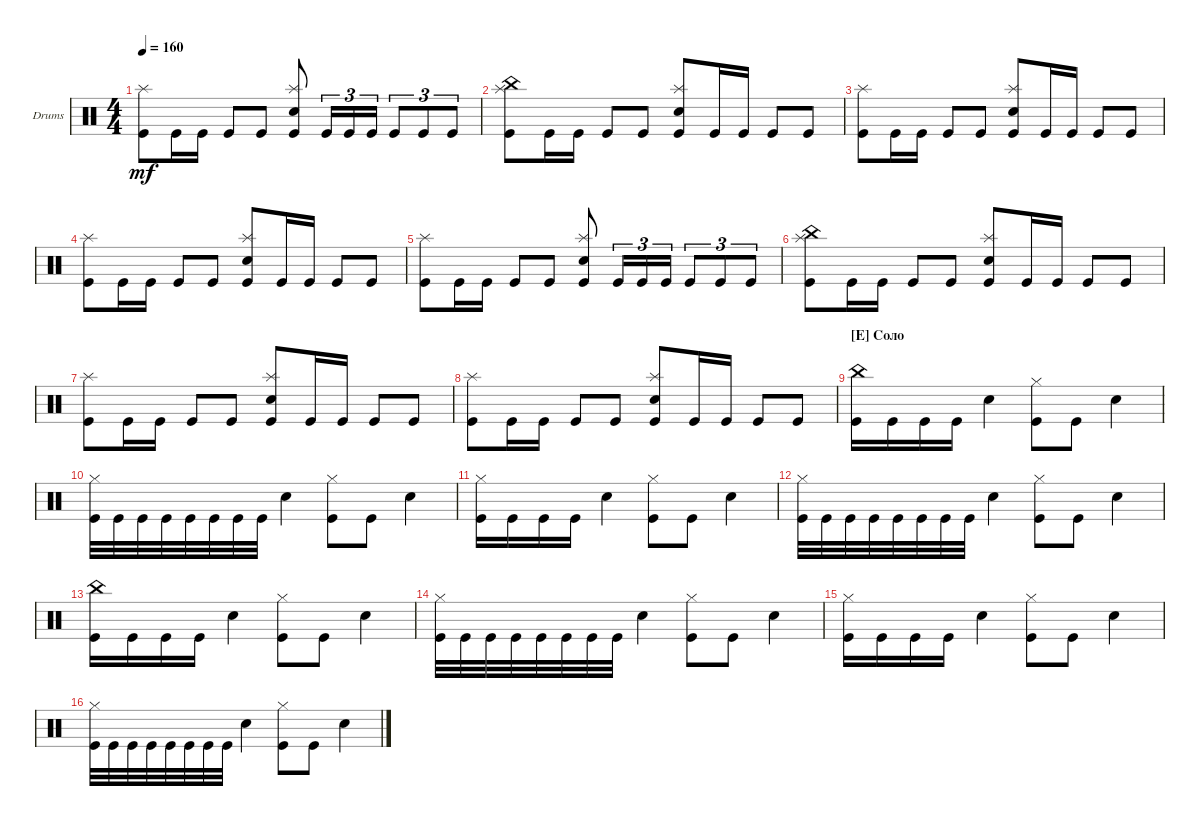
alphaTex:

\defaultSystemsLayout 4
\bracketExtendMode groupsimilarinstruments
\firstSystemTrackNameOrientation horizontal
\otherSystemsTrackNameOrientation horizontal
\track ("Drumkit" "Drums") {instrument percussion}
\staff {score}
\articulation defaults
\ts (4 4)
\tempo 160
\clef neutral
\ks c
("Kick (hit)" "Splash (hit)").8{dy mf} "Kick (hit)".16 "Kick (hit)".16 "Kick (hit)".8 "Kick (hit)".8 ("Kick (hit)" "Snare (hit) 2" "Splash (hit)").8 "Kick (hit)".16{tu (3 2)} "Kick (hit)".16{tu (3 2)} "Kick (hit)".16{tu (3 2)} "Kick (hit)".8{tu (3 2)} "Kick (hit)".8{tu (3 2)} "Kick (hit)".8{tu (3 2)} |
("Kick (hit)" "China (hit)" "Splash (hit)").8 "Kick (hit)".16 "Kick (hit)".16 "Kick (hit)".8 "Kick (hit)".8 ("Kick (hit)" "Snare (hit) 2" "Splash (hit)").8 "Kick (hit)".16 "Kick (hit)".16 "Kick (hit)".8 "Kick (hit)".8 |
("Kick (hit)" "Splash (hit)").8 "Kick (hit)".16 "Kick (hit)".16 "Kick (hit)".8 "Kick (hit)".8 ("Kick (hit)" "Snare (hit) 2" "Splash (hit)").8 "Kick (hit)".16 "Kick (hit)".16 "Kick (hit)".8 "Kick (hit)".8 |
("Kick (hit)" "Splash (hit)").8 "Kick (hit)".16 "Kick (hit)".16 "Kick (hit)".8 "Kick (hit)".8 ("Kick (hit)" "Snare (hit) 2" "Splash (hit)").8 "Kick (hit)".16 "Kick (hit)".16 "Kick (hit)".8 "Kick (hit)".8 |
("Kick (hit)" "Splash (hit)").8 "Kick (hit)".16 "Kick (hit)".16 "Kick (hit)".8 "Kick (hit)".8 ("Kick (hit)" "Snare (hit) 2" "Splash (hit)").8 "Kick (hit)".16{tu (3 2)} "Kick (hit)".16{tu (3 2)} "Kick (hit)".16{tu (3 2)} "Kick (hit)".8{tu (3 2)} "Kick (hit)".8{tu (3 2)} "Kick (hit)".8{tu (3 2)} |
("Kick (hit)" "China (hit)" "Splash (hit)").8 "Kick (hit)".16 "Kick (hit)".16 "Kick (hit)".8 "Kick (hit)".8 ("Kick (hit)" "Snare (hit) 2" "Splash (hit)").8 "Kick (hit)".16 "Kick (hit)".16 "Kick (hit)".8 "Kick (hit)".8 |
("Kick (hit)" "Splash (hit)").8 "Kick (hit)".16 "Kick (hit)".16 "Kick (hit)".8 "Kick (hit)".8 ("Kick (hit)" "Snare (hit) 2" "Splash (hit)").8 "Kick (hit)".16 "Kick (hit)".16 "Kick (hit)".8 "Kick (hit)".8 |
("Kick (hit)" "Splash (hit)").8 "Kick (hit)".16 "Kick (hit)".16 "Kick (hit)".8 "Kick (hit)".8 ("Kick (hit)" "Snare (hit) 2" "Splash (hit)").8 "Kick (hit)".16 "Kick (hit)".16 "Kick (hit)".8 "Kick (hit)".8 |
\section ("E" "Соло")
("Kick (hit)" "China (hit)").16 "Kick (hit)".16 "Kick (hit)".16 "Kick (hit)".16 "Snare (hit) 2".4 ("Kick (hit)" "Hi-Hat (closed)").8 "Kick (hit)".8 "Snare (hit) 2".4 |
("Kick (hit)" "Hi-Hat (closed)").32 "Kick (hit)".32 "Kick (hit)".32 "Kick (hit)".32 "Kick (hit)".32 "Kick (hit)".32 "Kick (hit)".32 "Kick (hit)".32 "Snare (hit) 2".4 ("Kick (hit)" "Hi-Hat (closed)").8 "Kick (hit)".8 "Snare (hit) 2".4 |
("Kick (hit)" "Hi-Hat (closed)").16 "Kick (hit)".16 "Kick (hit)".16 "Kick (hit)".16 "Snare (hit) 2".4 ("Kick (hit)" "Hi-Hat (closed)").8 "Kick (hit)".8 "Snare (hit) 2".4 |
("Kick (hit)" "Hi-Hat (closed)").32 "Kick (hit)".32 "Kick (hit)".32 "Kick (hit)".32 "Kick (hit)".32 "Kick (hit)".32 "Kick (hit)".32 "Kick (hit)".32 "Snare (hit) 2".4 ("Kick (hit)" "Hi-Hat (closed)").8 "Kick (hit)".8 "Snare (hit) 2".4 |
("Kick (hit)" "China (hit)").16 "Kick (hit)".16 "Kick (hit)".16 "Kick (hit)".16 "Snare (hit) 2".4 ("Kick (hit)" "Hi-Hat (closed)").8 "Kick (hit)".8 "Snare (hit) 2".4 |
("Kick (hit)" "Hi-Hat (closed)").32 "Kick (hit)".32 "Kick (hit)".32 "Kick (hit)".32 "Kick (hit)".32 "Kick (hit)".32 "Kick (hit)".32 "Kick (hit)".32 "Snare (hit) 2".4 ("Kick (hit)" "Hi-Hat (closed)").8 "Kick (hit)".8 "Snare (hit) 2".4 |
("Kick (hit)" "Hi-Hat (closed)").16 "Kick (hit)".16 "Kick (hit)".16 "Kick (hit)".16 "Snare (hit) 2".4 ("Kick (hit)" "Hi-Hat (closed)").8 "Kick (hit)".8 "Snare (hit) 2".4 |
("Kick (hit)" "Hi-Hat (closed)").32 "Kick (hit)".32 "Kick (hit)".32 "Kick (hit)".32 "Kick (hit)".32 "Kick (hit)".32 "Kick (hit)".32 "Kick (hit)".32 "Snare (hit) 2".4 ("Kick (hit)" "Hi-Hat (closed)").8 "Kick (hit)".8 "Snare (hit) 2".4
